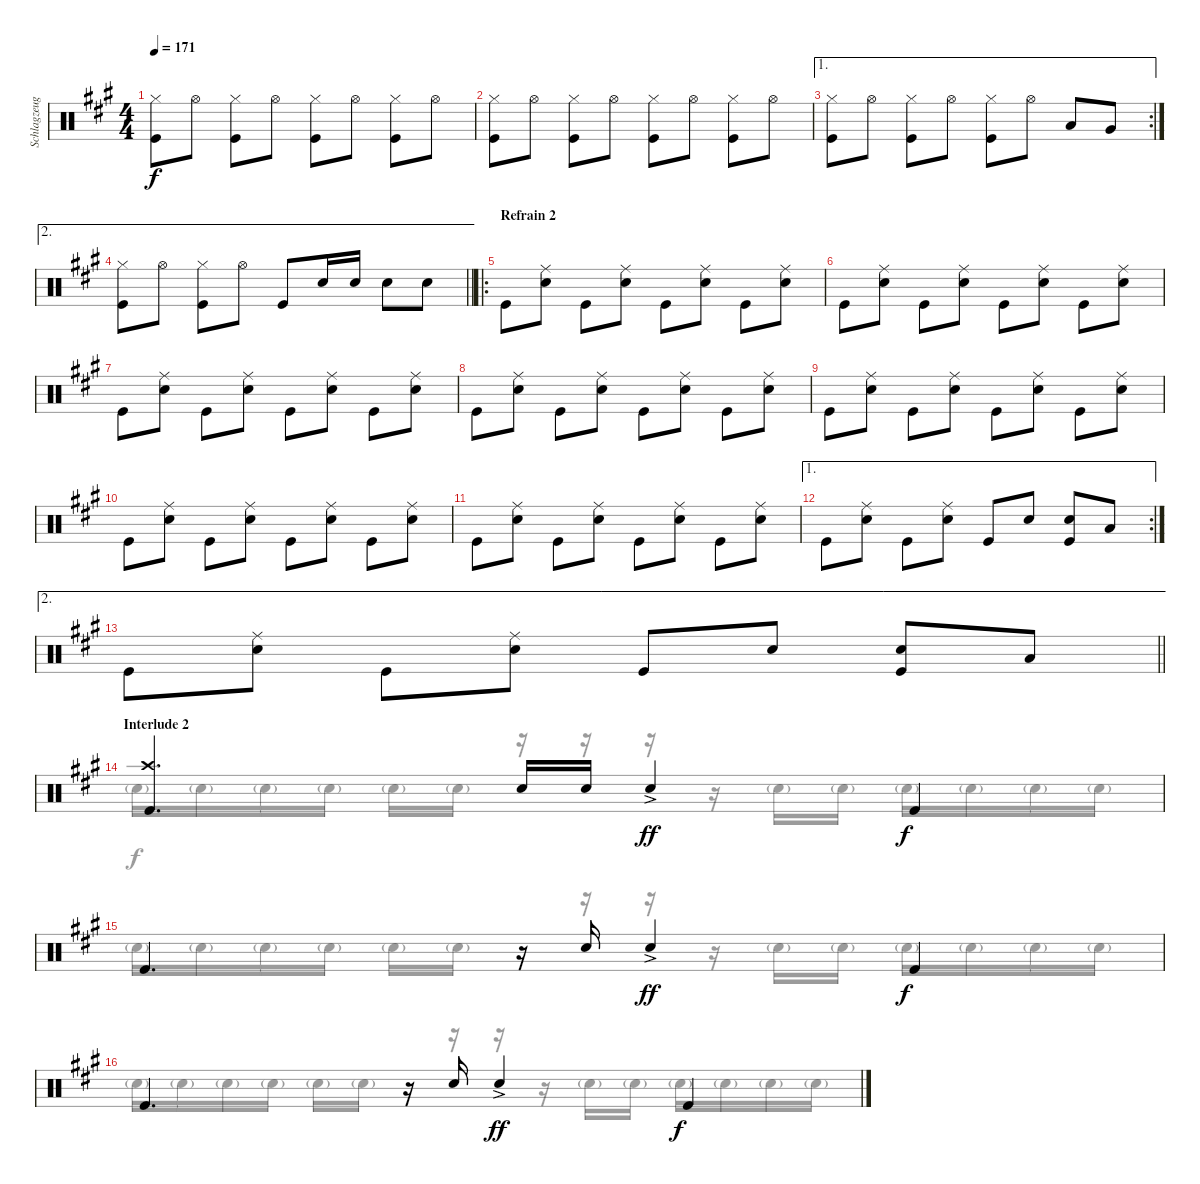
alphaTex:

\track ("Schlagzeug" "Schlagzeug") {instrument percussion}
\staff {score}
\articulation defaults
\voice
\ts (4 4)
\tempo 171
\clef neutral
\ks f#minor
("Hi-Hat (closed)" "Kick (hit)").8{dy f} "Hi-Hat (open)".8 ("Hi-Hat (closed)" "Kick (hit)").8 "Hi-Hat (open)".8 ("Hi-Hat (closed)" "Kick (hit)").8 "Hi-Hat (open)".8 ("Hi-Hat (closed)" "Kick (hit)").8 "Hi-Hat (open)".8 |
("Hi-Hat (closed)" "Kick (hit)").8 "Hi-Hat (open)".8 ("Hi-Hat (closed)" "Kick (hit)").8 "Hi-Hat (open)".8 ("Hi-Hat (closed)" "Kick (hit)").8 "Hi-Hat (open)".8 ("Hi-Hat (closed)" "Kick (hit)").8 "Hi-Hat (open)".8 |
\ae 1
\rc 2
("Hi-Hat (closed)" "Kick (hit)").8 "Hi-Hat (open)".8 ("Hi-Hat (closed)" "Kick (hit)").8 "Hi-Hat (open)".8 ("Hi-Hat (closed)" "Kick (hit)").8 "Hi-Hat (open)".8 "Low Tom (hit)".8 "Very Low Tom (hit)".8 |
\ae 2
\barLineRight lightlight
("Hi-Hat (closed)" "Kick (hit)").8 "Hi-Hat (open)".8 ("Hi-Hat (closed)" "Kick (hit)").8 "Hi-Hat (open)".8 "Kick (hit)".8 "Electric Snare (hit)".16 "Electric Snare (hit)".16 "Electric Snare (hit)".8 "Electric Snare (hit)".8 |
\ro
\section ("" "Refrain 2")
"Kick (hit)".8 ("Ride (middle)" "Electric Snare (hit)").8 "Kick (hit)".8 ("Ride (middle)" "Electric Snare (hit)").8 "Kick (hit)".8 ("Ride (middle)" "Electric Snare (hit)").8 "Kick (hit)".8 ("Ride (middle)" "Electric Snare (hit)").8 |
"Kick (hit)".8 ("Ride (middle)" "Electric Snare (hit)").8 "Kick (hit)".8 ("Ride (middle)" "Electric Snare (hit)").8 "Kick (hit)".8 ("Ride (middle)" "Electric Snare (hit)").8 "Kick (hit)".8 ("Ride (middle)" "Electric Snare (hit)").8 |
"Kick (hit)".8 ("Ride (middle)" "Electric Snare (hit)").8 "Kick (hit)".8 ("Ride (middle)" "Electric Snare (hit)").8 "Kick (hit)".8 ("Ride (middle)" "Electric Snare (hit)").8 "Kick (hit)".8 ("Ride (middle)" "Electric Snare (hit)").8 |
"Kick (hit)".8 ("Ride (middle)" "Electric Snare (hit)").8 "Kick (hit)".8 ("Ride (middle)" "Electric Snare (hit)").8 "Kick (hit)".8 ("Ride (middle)" "Electric Snare (hit)").8 "Kick (hit)".8 ("Ride (middle)" "Electric Snare (hit)").8 |
"Kick (hit)".8 ("Ride (middle)" "Electric Snare (hit)").8 "Kick (hit)".8 ("Ride (middle)" "Electric Snare (hit)").8 "Kick (hit)".8 ("Ride (middle)" "Electric Snare (hit)").8 "Kick (hit)".8 ("Ride (middle)" "Electric Snare (hit)").8 |
"Kick (hit)".8 ("Ride (middle)" "Electric Snare (hit)").8 "Kick (hit)".8 ("Ride (middle)" "Electric Snare (hit)").8 "Kick (hit)".8 ("Ride (middle)" "Electric Snare (hit)").8 "Kick (hit)".8 ("Ride (middle)" "Electric Snare (hit)").8 |
"Kick (hit)".8 ("Ride (middle)" "Electric Snare (hit)").8 "Kick (hit)".8 ("Ride (middle)" "Electric Snare (hit)").8 "Kick (hit)".8 ("Ride (middle)" "Electric Snare (hit)").8 "Kick (hit)".8 ("Ride (middle)" "Electric Snare (hit)").8 |
\ae 1
\rc 2 "Kick (hit)".8
("Ride (middle)" "Electric Snare (hit)").8 "Kick (hit)".8 ("Ride (middle)" "Electric Snare (hit)").8 "Kick (hit)".8 "Electric Snare (hit)".8 ("Electric Snare (hit)" "Kick (hit)").8 "Low Tom (hit)".8 |
\ae 2
\barLineRight lightlight "Kick (hit)".8
("Ride (middle)" "Electric Snare (hit)").8 "Kick (hit)".8 ("Ride (middle)" "Electric Snare (hit)").8 "Kick (hit)".8 "Electric Snare (hit)".8 ("Electric Snare (hit)" "Kick (hit)").8 "Low Tom (hit)".8 |
\section ("" "Interlude 2")
("Crash high (hit)" "Kick (hit)").4{d} "Electric Snare (hit)".16 "Electric Snare (hit)".16 "Electric Snare (hit)"{ac}.4{dy ff} "Kick (hit)".4{dy f} |
"Kick (hit)".4{d} r.16 "Electric Snare (hit)".16 "Electric Snare (hit)"{ac}.4{dy ff} "Kick (hit)".4{dy f} |
"Kick (hit)".4{d} r.16 "Electric Snare (hit)".16 "Electric Snare (hit)"{ac}.4{dy ff} "Kick (hit)".4{dy f}
\voice
\clef neutral
\ottava regular
\simile none
\ks f#minor
|
|
|
\barLineRight lightlight
|
|
|
|
|
|
|
|
|
\barLineRight lightlight
|
"Electric Snare (hit)"{g}.16 "Electric Snare (hit)"{g}.16 "Electric Snare (hit)"{g}.16 "Electric Snare (hit)"{g}.16 "Electric Snare (hit)"{g}.16 "Electric Snare (hit)"{g}.16 r.16 r.16 r.16 r.16 "Electric Snare (hit)"{g}.16 "Electric Snare (hit)"{g}.16 "Electric Snare (hit)"{g}.16 "Electric Snare (hit)"{g}.16 "Electric Snare (hit)"{g}.16 "Electric Snare (hit)"{g}.16 |
"Electric Snare (hit)"{g}.16 "Electric Snare (hit)"{g}.16 "Electric Snare (hit)"{g}.16 "Electric Snare (hit)"{g}.16 "Electric Snare (hit)"{g}.16 "Electric Snare (hit)"{g}.16 r.16 r.16 r.16 r.16 "Electric Snare (hit)"{g}.16 "Electric Snare (hit)"{g}.16 "Electric Snare (hit)"{g}.16 "Electric Snare (hit)"{g}.16 "Electric Snare (hit)"{g}.16 "Electric Snare (hit)"{g}.16 |
"Electric Snare (hit)"{g}.16 "Electric Snare (hit)"{g}.16 "Electric Snare (hit)"{g}.16 "Electric Snare (hit)"{g}.16 "Electric Snare (hit)"{g}.16 "Electric Snare (hit)"{g}.16 r.16 r.16 r.16 r.16 "Electric Snare (hit)"{g}.16 "Electric Snare (hit)"{g}.16 "Electric Snare (hit)"{g}.16 "Electric Snare (hit)"{g}.16 "Electric Snare (hit)"{g}.16 "Electric Snare (hit)"{g}.16
